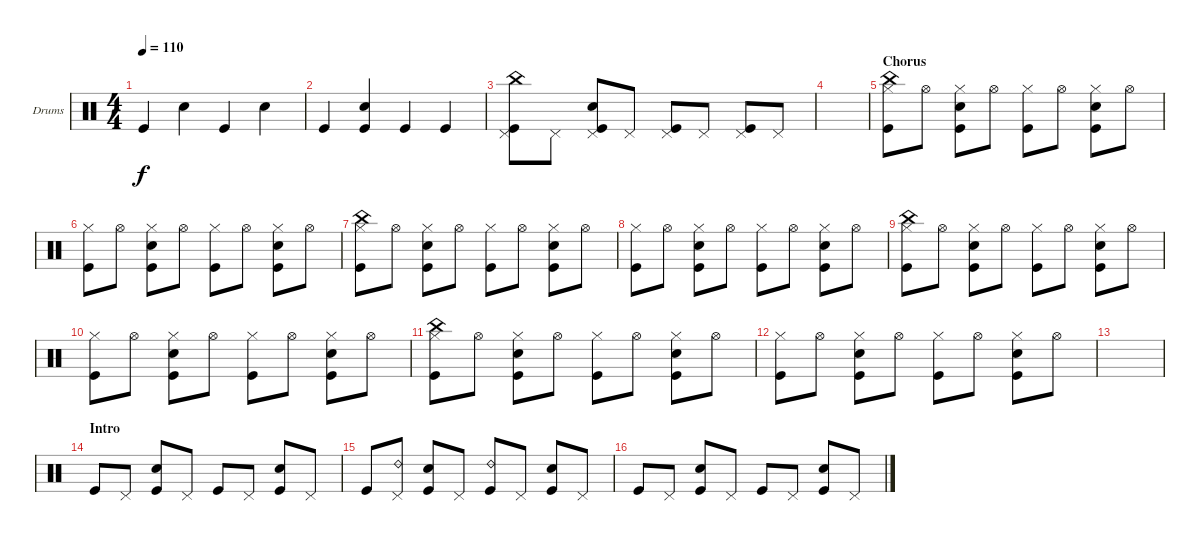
\bracketExtendMode groupsimilarinstruments
\firstSystemTrackNameOrientation horizontal
\otherSystemsTrackNameOrientation horizontal
\track ("Drumkit" "Drums") {instrument percussion}
\staff {score}
\articulation defaults
\ts (4 4)
\tempo 110
\clef neutral
\ks c "Kick (hit)".4{dy f} "Snare (hit) 2".4 "Kick (hit)".4 "Snare (hit) 2".4
|
"Kick (hit)".4 ("Snare (hit) 2" "Kick (hit)").4 "Kick (hit)".4 "Kick (hit)".4 |
("Kick (hit)" "Pedal Hi-Hat (hit)" "China (hit)").8 "Pedal Hi-Hat (hit)".8 ("Snare (hit) 2" "Kick (hit)" "Pedal Hi-Hat (hit)").8 "Pedal Hi-Hat (hit)".8 ("Kick (hit)" "Pedal Hi-Hat (hit)").8 "Pedal Hi-Hat (hit)".8 ("Kick (hit)" "Pedal Hi-Hat (hit)").8 "Pedal Hi-Hat (hit)".8 |
|
\section ("" "Chorus")
("Kick (hit)" "Hi-Hat (closed)" "China (hit)").8 "Hi-Hat (open)".8 ("Snare (hit) 2" "Kick (hit)" "Hi-Hat (closed)").8 "Hi-Hat (open)".8 ("Kick (hit)" "Hi-Hat (closed)").8 "Hi-Hat (open)".8 ("Snare (hit) 2" "Kick (hit)" "Hi-Hat (closed)").8 "Hi-Hat (open)".8 |
("Kick (hit)" "Hi-Hat (closed)").8 "Hi-Hat (open)".8 ("Snare (hit) 2" "Kick (hit)" "Hi-Hat (closed)").8 "Hi-Hat (open)".8 ("Kick (hit)" "Hi-Hat (closed)").8 "Hi-Hat (open)".8 ("Snare (hit) 2" "Kick (hit)" "Hi-Hat (closed)").8 "Hi-Hat (open)".8 |
("Kick (hit)" "Hi-Hat (closed)" "China (hit)").8 "Hi-Hat (open)".8 ("Snare (hit) 2" "Kick (hit)" "Hi-Hat (closed)").8 "Hi-Hat (open)".8 ("Kick (hit)" "Hi-Hat (closed)").8 "Hi-Hat (open)".8 ("Snare (hit) 2" "Kick (hit)" "Hi-Hat (closed)").8 "Hi-Hat (open)".8 |
("Kick (hit)" "Hi-Hat (closed)").8 "Hi-Hat (open)".8 ("Snare (hit) 2" "Kick (hit)" "Hi-Hat (closed)").8 "Hi-Hat (open)".8 ("Kick (hit)" "Hi-Hat (closed)").8 "Hi-Hat (open)".8 ("Snare (hit) 2" "Kick (hit)" "Hi-Hat (closed)").8 "Hi-Hat (open)".8 |
("Kick (hit)" "Hi-Hat (closed)" "China (hit)").8 "Hi-Hat (open)".8 ("Snare (hit) 2" "Kick (hit)" "Hi-Hat (closed)").8 "Hi-Hat (open)".8 ("Kick (hit)" "Hi-Hat (closed)").8 "Hi-Hat (open)".8 ("Snare (hit) 2" "Kick (hit)" "Hi-Hat (closed)").8 "Hi-Hat (open)".8 |
("Kick (hit)" "Hi-Hat (closed)").8 "Hi-Hat (open)".8 ("Snare (hit) 2" "Kick (hit)" "Hi-Hat (closed)").8 "Hi-Hat (open)".8 ("Kick (hit)" "Hi-Hat (closed)").8 "Hi-Hat (open)".8 ("Snare (hit) 2" "Kick (hit)" "Hi-Hat (closed)").8 "Hi-Hat (open)".8 |
("Kick (hit)" "Hi-Hat (closed)" "China (hit)").8 "Hi-Hat (open)".8 ("Snare (hit) 2" "Kick (hit)" "Hi-Hat (closed)").8 "Hi-Hat (open)".8 ("Kick (hit)" "Hi-Hat (closed)").8 "Hi-Hat (open)".8 ("Snare (hit) 2" "Kick (hit)" "Hi-Hat (closed)").8 "Hi-Hat (open)".8 |
("Kick (hit)" "Hi-Hat (closed)").8 "Hi-Hat (open)".8 ("Snare (hit) 2" "Kick (hit)" "Hi-Hat (closed)").8 "Hi-Hat (open)".8 ("Kick (hit)" "Hi-Hat (closed)").8 "Hi-Hat (open)".8 ("Snare (hit) 2" "Kick (hit)" "Hi-Hat (closed)").8 "Hi-Hat (open)".8 |
|
\section ("" "Intro")
"Kick (hit)".8 "Pedal Hi-Hat (hit)".8 ("Snare (hit) 2" "Kick (hit)").8 "Pedal Hi-Hat (hit)".8 "Kick (hit)".8 "Pedal Hi-Hat (hit)".8 ("Snare (hit) 2" "Kick (hit)").8 "Pedal Hi-Hat (hit)".8 |
"Kick (hit)".8 ("Pedal Hi-Hat (hit)" "Ride (bell) 2").8 ("Snare (hit) 2" "Kick (hit)").8 "Pedal Hi-Hat (hit)".8 ("Kick (hit)" "Ride (bell) 2").8 "Pedal Hi-Hat (hit)".8 ("Snare (hit) 2" "Kick (hit)").8 "Pedal Hi-Hat (hit)".8 |
"Kick (hit)".8 "Pedal Hi-Hat (hit)".8 ("Snare (hit) 2" "Kick (hit)").8 "Pedal Hi-Hat (hit)".8 "Kick (hit)".8 "Pedal Hi-Hat (hit)".8 ("Snare (hit) 2" "Kick (hit)").8 "Pedal Hi-Hat (hit)".8
